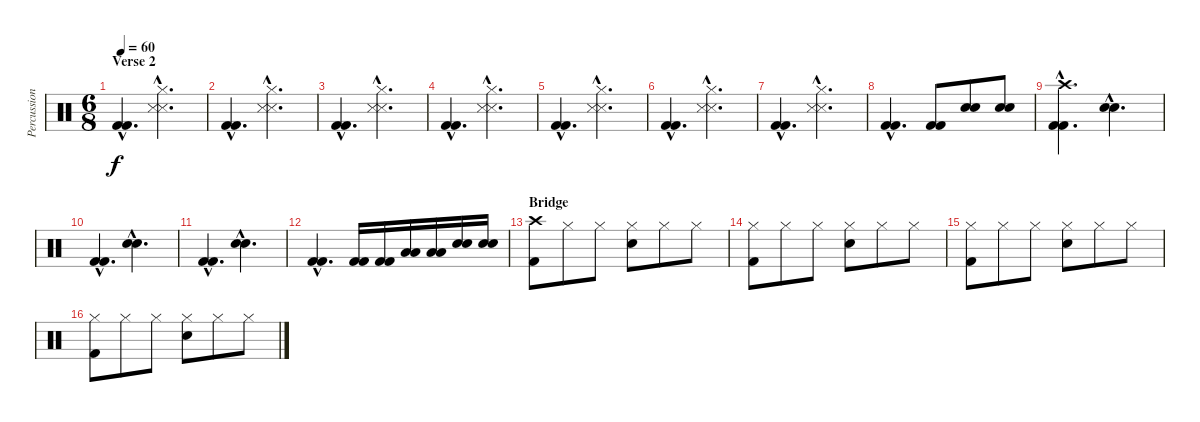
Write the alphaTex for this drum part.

\track ("Percussion" "Percussion") {instrument percussion}
\staff {score}
\articulation defaults
\ts (6 8)
\section ("" "Verse 2")
\tempo 60
\clef neutral
\ks c
("Kick (hit) 2"{hac} "Kick (hit) 2"{hac}).4{d dy f} ("Hi-Hat (closed)"{hac} "Snare (side stick) 3"{hac} "Snare (side stick) 3"{hac}).4{d} |
("Kick (hit) 2"{hac} "Kick (hit) 2"{hac}).4{d} ("Hi-Hat (closed)"{hac} "Snare (side stick) 3"{hac} "Snare (side stick) 3"{hac}).4{d} |
("Kick (hit) 2"{hac} "Kick (hit) 2"{hac}).4{d} ("Hi-Hat (closed)"{hac} "Snare (side stick) 3"{hac} "Snare (side stick) 3"{hac}).4{d} |
("Kick (hit) 2"{hac} "Kick (hit) 2"{hac}).4{d} ("Hi-Hat (closed)"{hac} "Snare (side stick) 3"{hac} "Snare (side stick) 3"{hac}).4{d} |
("Kick (hit) 2"{hac} "Kick (hit) 2"{hac}).4{d} ("Hi-Hat (closed)"{hac} "Snare (side stick) 3"{hac} "Snare (side stick) 3"{hac}).4{d} |
("Kick (hit) 2"{hac} "Kick (hit) 2"{hac}).4{d} ("Hi-Hat (closed)"{hac} "Snare (side stick) 3"{hac} "Snare (side stick) 3"{hac}).4{d} |
("Kick (hit) 2"{hac} "Kick (hit) 2"{hac}).4{d} ("Hi-Hat (closed)"{hac} "Snare (side stick) 3"{hac} "Snare (side stick) 3"{hac}).4{d} |
("Kick (hit) 2"{hac} "Kick (hit) 2"{hac}).4{d} ("Kick (hit) 2" "Kick (hit) 2").8 ("Electric Snare (hit)" "Electric Snare (hit)").8 ("Electric Snare (hit)" "Electric Snare (hit)").8 |
("Crash high (hit)"{hac} "Kick (hit) 2"{hac} "Kick (hit) 2"{hac}).4{d} ("Electric Snare (hit)"{hac} "Electric Snare (hit)"{hac}).4{d} |
("Kick (hit) 2"{hac} "Kick (hit) 2"{hac}).4{d} ("Electric Snare (hit)"{hac} "Electric Snare (hit)"{hac}).4{d} |
("Kick (hit) 2"{hac} "Kick (hit) 2"{hac}).4{d} ("Electric Snare (hit)"{hac} "Electric Snare (hit)"{hac}).4{d} |
("Kick (hit) 2"{hac} "Kick (hit) 2"{hac}).4{d} ("Kick (hit) 2" "Kick (hit) 2").16 ("Kick (hit) 2" "Kick (hit) 2").16 ("Low Tom (hit)" "Low Tom (hit)").16 ("Low Tom (hit)" "Low Tom (hit)").16 ("Electric Snare (hit)" "Electric Snare (hit)").16 ("Electric Snare (hit)" "Electric Snare (hit)").16 |
\section ("" "Bridge")
("Crash high (hit)" "Kick (hit) 2").8 "Hi-Hat (closed)".8 "Hi-Hat (closed)".8 ("Hi-Hat (closed)" "Electric Snare (hit)").8 "Hi-Hat (closed)".8 "Hi-Hat (closed)".8 |
("Hi-Hat (closed)" "Kick (hit) 2").8 "Hi-Hat (closed)".8 "Hi-Hat (closed)".8 ("Hi-Hat (closed)" "Electric Snare (hit)").8 "Hi-Hat (closed)".8 "Hi-Hat (closed)".8 |
("Hi-Hat (closed)" "Kick (hit) 2").8 "Hi-Hat (closed)".8 "Hi-Hat (closed)".8 ("Hi-Hat (closed)" "Electric Snare (hit)").8 "Hi-Hat (closed)".8 "Hi-Hat (closed)".8 |
("Hi-Hat (closed)" "Kick (hit) 2").8 "Hi-Hat (closed)".8 "Hi-Hat (closed)".8 ("Hi-Hat (closed)" "Electric Snare (hit)").8 "Hi-Hat (closed)".8 "Hi-Hat (closed)".8
